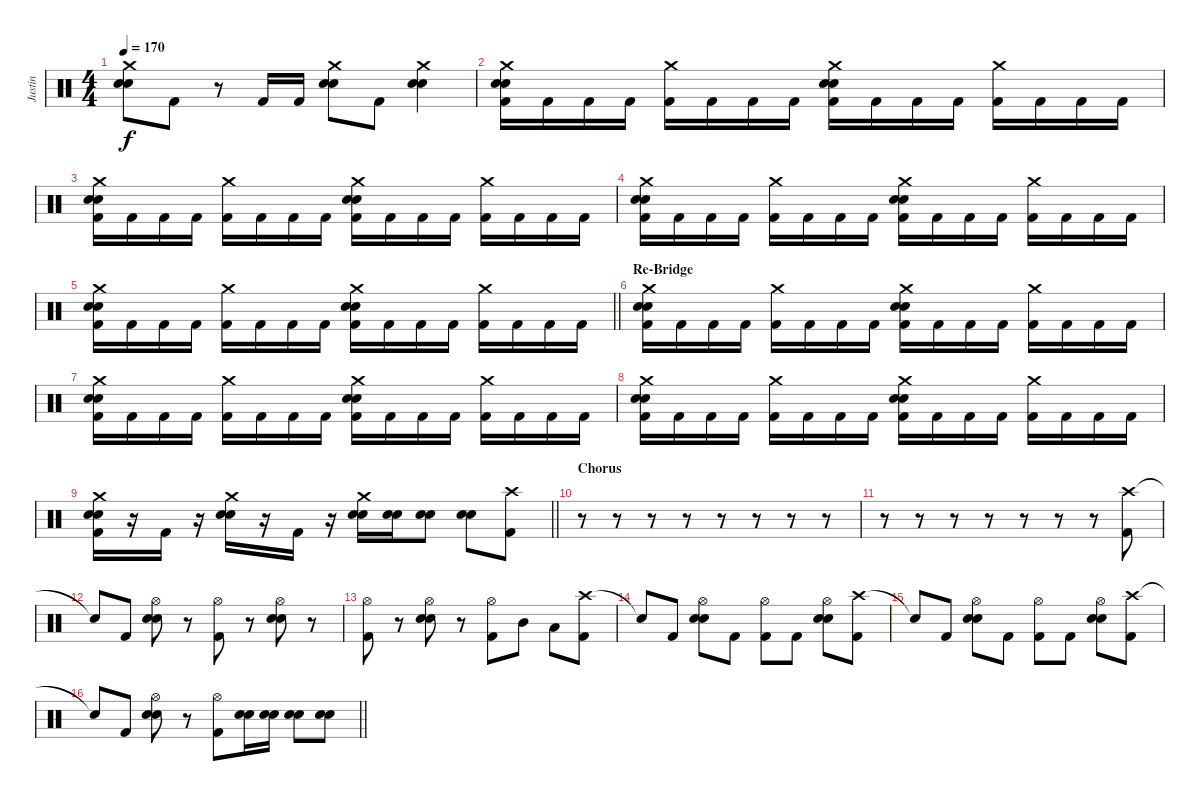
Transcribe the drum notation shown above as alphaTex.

\track ("Justin" "Justin") {instrument percussion}
\staff {score}
\articulation defaults
\ts (4 4)
\tempo 170
\clef neutral
\ks c
("Crash medium (hit)" "Electric Snare (hit)" "Snare (hit) 2").8{dy f} "Kick (hit) 2".8 r.8 "Kick (hit) 2".16 "Kick (hit) 2".16 ("Crash medium (hit)" "Electric Snare (hit)" "Snare (hit) 2").8 "Kick (hit) 2".8 ("Crash medium (hit)" "Electric Snare (hit)" "Snare (hit) 2").4 |
("Crash medium (hit)" "Electric Snare (hit)" "Snare (hit) 2" "Kick (hit) 2").16 "Kick (hit) 2".16 "Kick (hit) 2".16 "Kick (hit) 2".16 ("Crash medium (hit)" "Kick (hit) 2").16 "Kick (hit) 2".16 "Kick (hit) 2".16 "Kick (hit) 2".16 ("Crash medium (hit)" "Electric Snare (hit)" "Snare (hit) 2" "Kick (hit) 2").16 "Kick (hit) 2".16 "Kick (hit) 2".16 "Kick (hit) 2".16 ("Crash medium (hit)" "Kick (hit) 2").16 "Kick (hit) 2".16 "Kick (hit) 2".16 "Kick (hit) 2".16 |
("Crash medium (hit)" "Electric Snare (hit)" "Snare (hit) 2" "Kick (hit) 2").16 "Kick (hit) 2".16 "Kick (hit) 2".16 "Kick (hit) 2".16 ("Crash medium (hit)" "Kick (hit) 2").16 "Kick (hit) 2".16 "Kick (hit) 2".16 "Kick (hit) 2".16 ("Crash medium (hit)" "Electric Snare (hit)" "Snare (hit) 2" "Kick (hit) 2").16 "Kick (hit) 2".16 "Kick (hit) 2".16 "Kick (hit) 2".16 ("Crash medium (hit)" "Kick (hit) 2").16 "Kick (hit) 2".16 "Kick (hit) 2".16 "Kick (hit) 2".16 |
("Crash medium (hit)" "Electric Snare (hit)" "Snare (hit) 2" "Kick (hit) 2").16 "Kick (hit) 2".16 "Kick (hit) 2".16 "Kick (hit) 2".16 ("Crash medium (hit)" "Kick (hit) 2").16 "Kick (hit) 2".16 "Kick (hit) 2".16 "Kick (hit) 2".16 ("Crash medium (hit)" "Electric Snare (hit)" "Snare (hit) 2" "Kick (hit) 2").16 "Kick (hit) 2".16 "Kick (hit) 2".16 "Kick (hit) 2".16 ("Crash medium (hit)" "Kick (hit) 2").16 "Kick (hit) 2".16 "Kick (hit) 2".16 "Kick (hit) 2".16 |
\barLineRight lightlight
("Crash medium (hit)" "Electric Snare (hit)" "Snare (hit) 2" "Kick (hit) 2").16 "Kick (hit) 2".16 "Kick (hit) 2".16 "Kick (hit) 2".16 ("Crash medium (hit)" "Kick (hit) 2").16 "Kick (hit) 2".16 "Kick (hit) 2".16 "Kick (hit) 2".16 ("Crash medium (hit)" "Electric Snare (hit)" "Snare (hit) 2" "Kick (hit) 2").16 "Kick (hit) 2".16 "Kick (hit) 2".16 "Kick (hit) 2".16 ("Crash medium (hit)" "Kick (hit) 2").16 "Kick (hit) 2".16 "Kick (hit) 2".16 "Kick (hit) 2".16 |
\section ("" "Re-Bridge")
("Crash medium (hit)" "Electric Snare (hit)" "Snare (hit) 2" "Kick (hit) 2").16 "Kick (hit) 2".16 "Kick (hit) 2".16 "Kick (hit) 2".16 ("Crash medium (hit)" "Kick (hit) 2").16 "Kick (hit) 2".16 "Kick (hit) 2".16 "Kick (hit) 2".16 ("Crash medium (hit)" "Electric Snare (hit)" "Snare (hit) 2" "Kick (hit) 2").16 "Kick (hit) 2".16 "Kick (hit) 2".16 "Kick (hit) 2".16 ("Crash medium (hit)" "Kick (hit) 2").16 "Kick (hit) 2".16 "Kick (hit) 2".16 "Kick (hit) 2".16 |
("Crash medium (hit)" "Electric Snare (hit)" "Snare (hit) 2" "Kick (hit) 2").16 "Kick (hit) 2".16 "Kick (hit) 2".16 "Kick (hit) 2".16 ("Crash medium (hit)" "Kick (hit) 2").16 "Kick (hit) 2".16 "Kick (hit) 2".16 "Kick (hit) 2".16 ("Crash medium (hit)" "Electric Snare (hit)" "Snare (hit) 2" "Kick (hit) 2").16 "Kick (hit) 2".16 "Kick (hit) 2".16 "Kick (hit) 2".16 ("Crash medium (hit)" "Kick (hit) 2").16 "Kick (hit) 2".16 "Kick (hit) 2".16 "Kick (hit) 2".16 |
("Crash medium (hit)" "Electric Snare (hit)" "Snare (hit) 2" "Kick (hit) 2").16 "Kick (hit) 2".16 "Kick (hit) 2".16 "Kick (hit) 2".16 ("Crash medium (hit)" "Kick (hit) 2").16 "Kick (hit) 2".16 "Kick (hit) 2".16 "Kick (hit) 2".16 ("Crash medium (hit)" "Electric Snare (hit)" "Snare (hit) 2" "Kick (hit) 2").16 "Kick (hit) 2".16 "Kick (hit) 2".16 "Kick (hit) 2".16 ("Crash medium (hit)" "Kick (hit) 2").16 "Kick (hit) 2".16 "Kick (hit) 2".16 "Kick (hit) 2".16 |
\barLineRight lightlight
("Crash medium (hit)" "Electric Snare (hit)" "Snare (hit) 2" "Kick (hit) 2").16 r.16 "Kick (hit) 2".16 r.16 ("Crash medium (hit)" "Electric Snare (hit)" "Snare (hit) 2").16 r.16 "Kick (hit) 2".16 r.16 ("Crash medium (hit)" "Electric Snare (hit)" "Snare (hit) 2").16 ("Electric Snare (hit)" "Snare (hit) 2").16 ("Electric Snare (hit)" "Snare (hit) 2").8 ("Electric Snare (hit)" "Snare (hit) 2").8 ("Crash high (hit)" "Kick (hit) 2").8 |
\section ("" "Chorus")
r.8 r.8 r.8 r.8 r.8 r.8 r.8 r.8 |
r.8 r.8 r.8 r.8 r.8 r.8 r.8 ("Crash high (hit)" "Kick (hit) 2").8 |
"Snare (hit)"{t}.8 "Kick (hit) 2".8 ("Hi-Hat (open)" "Electric Snare (hit)" "Snare (hit) 2").8 r.8 ("Hi-Hat (open)" "Kick (hit) 2").8 r.8 ("Hi-Hat (open)" "Electric Snare (hit)" "Snare (hit) 2").8 r.8 |
("Hi-Hat (open)" "Kick (hit) 2").8 r.8 ("Hi-Hat (open)" "Electric Snare (hit)" "Snare (hit) 2").8 r.8 ("Hi-Hat (open)" "Kick (hit) 2").8 "Mid Tom (hit)".8 "Low Tom (hit)".8 ("Crash high (hit)" "Kick (hit) 2").8 |
"Snare (hit)"{t}.8 "Kick (hit) 2".8 ("Hi-Hat (open)" "Electric Snare (hit)" "Snare (hit) 2").8 "Kick (hit) 2".8 ("Hi-Hat (open)" "Kick (hit) 2").8 "Kick (hit) 2".8 ("Hi-Hat (open)" "Electric Snare (hit)" "Snare (hit) 2").8 ("Crash high (hit)" "Kick (hit) 2").8 |
"Snare (hit)"{t}.8 "Kick (hit) 2".8 ("Hi-Hat (open)" "Electric Snare (hit)" "Snare (hit) 2").8 "Kick (hit) 2".8 ("Hi-Hat (open)" "Kick (hit) 2").8 "Kick (hit) 2".8 ("Hi-Hat (open)" "Electric Snare (hit)" "Snare (hit) 2").8 ("Crash high (hit)" "Kick (hit) 2").8 |
\barLineRight lightlight "Snare (hit)"{t}.8 "Kick (hit) 2".8
("Hi-Hat (open)" "Electric Snare (hit)" "Snare (hit) 2").8 r.8 ("Hi-Hat (open)" "Kick (hit) 2").8 ("Electric Snare (hit)" "Snare (hit) 2").16 ("Electric Snare (hit)" "Snare (hit) 2").16 ("Electric Snare (hit)" "Snare (hit) 2").8 ("Electric Snare (hit)" "Snare (hit) 2").8
